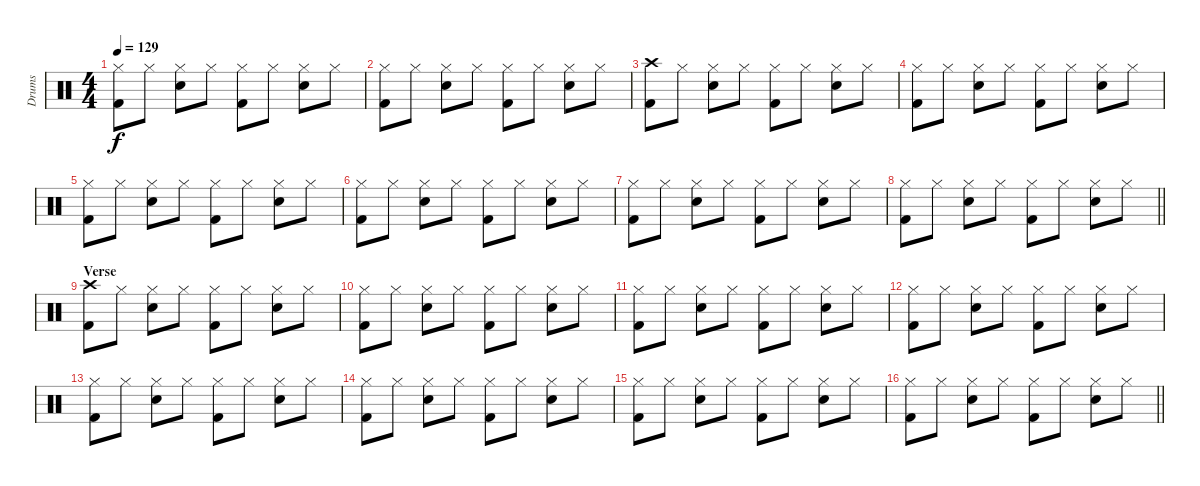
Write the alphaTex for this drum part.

\track ("Drums" "Drums") {instrument percussion}
\staff {score}
\articulation defaults
\ts (4 4)
\tempo 129
\clef neutral
\ks c
("Hi-Hat (closed)" "Kick (hit) 2").8{dy f} "Hi-Hat (closed)".8 ("Hi-Hat (closed)" "Snare (hit) 2").8 "Hi-Hat (closed)".8 ("Hi-Hat (closed)" "Kick (hit) 2").8 "Hi-Hat (closed)".8 ("Hi-Hat (closed)" "Snare (hit) 2").8 "Hi-Hat (closed)".8 |
("Hi-Hat (closed)" "Kick (hit) 2").8 "Hi-Hat (closed)".8 ("Hi-Hat (closed)" "Snare (hit) 2").8 "Hi-Hat (closed)".8 ("Hi-Hat (closed)" "Kick (hit) 2").8 "Hi-Hat (closed)".8 ("Hi-Hat (closed)" "Snare (hit) 2").8 "Hi-Hat (closed)".8 |
("Crash high (hit)" "Kick (hit) 2").8 "Hi-Hat (closed)".8 ("Hi-Hat (closed)" "Snare (hit) 2").8 "Hi-Hat (closed)".8 ("Hi-Hat (closed)" "Kick (hit) 2").8 "Hi-Hat (closed)".8 ("Hi-Hat (closed)" "Snare (hit) 2").8 "Hi-Hat (closed)".8 |
("Hi-Hat (closed)" "Kick (hit) 2").8 "Hi-Hat (closed)".8 ("Hi-Hat (closed)" "Snare (hit) 2").8 "Hi-Hat (closed)".8 ("Hi-Hat (closed)" "Kick (hit) 2").8 "Hi-Hat (closed)".8 ("Hi-Hat (closed)" "Snare (hit) 2").8 "Hi-Hat (closed)".8 |
("Hi-Hat (closed)" "Kick (hit) 2").8 "Hi-Hat (closed)".8 ("Hi-Hat (closed)" "Snare (hit) 2").8 "Hi-Hat (closed)".8 ("Hi-Hat (closed)" "Kick (hit) 2").8 "Hi-Hat (closed)".8 ("Hi-Hat (closed)" "Snare (hit) 2").8 "Hi-Hat (closed)".8 |
("Hi-Hat (closed)" "Kick (hit) 2").8 "Hi-Hat (closed)".8 ("Hi-Hat (closed)" "Snare (hit) 2").8 "Hi-Hat (closed)".8 ("Hi-Hat (closed)" "Kick (hit) 2").8 "Hi-Hat (closed)".8 ("Hi-Hat (closed)" "Snare (hit) 2").8 "Hi-Hat (closed)".8 |
("Hi-Hat (closed)" "Kick (hit) 2").8 "Hi-Hat (closed)".8 ("Hi-Hat (closed)" "Snare (hit) 2").8 "Hi-Hat (closed)".8 ("Hi-Hat (closed)" "Kick (hit) 2").8 "Hi-Hat (closed)".8 ("Hi-Hat (closed)" "Snare (hit) 2").8 "Hi-Hat (closed)".8 |
\barLineRight lightlight
("Hi-Hat (closed)" "Kick (hit) 2").8 "Hi-Hat (closed)".8 ("Hi-Hat (closed)" "Snare (hit) 2").8 "Hi-Hat (closed)".8 ("Hi-Hat (closed)" "Kick (hit) 2").8 "Hi-Hat (closed)".8 ("Hi-Hat (closed)" "Snare (hit) 2").8 "Hi-Hat (closed)".8 |
\section ("" "Verse")
("Crash high (hit)" "Kick (hit) 2").8 "Hi-Hat (closed)".8 ("Hi-Hat (closed)" "Snare (hit) 2").8 "Hi-Hat (closed)".8 ("Hi-Hat (closed)" "Kick (hit) 2").8 "Hi-Hat (closed)".8 ("Hi-Hat (closed)" "Snare (hit) 2").8 "Hi-Hat (closed)".8 |
("Hi-Hat (closed)" "Kick (hit) 2").8 "Hi-Hat (closed)".8 ("Hi-Hat (closed)" "Snare (hit) 2").8 "Hi-Hat (closed)".8 ("Hi-Hat (closed)" "Kick (hit) 2").8 "Hi-Hat (closed)".8 ("Hi-Hat (closed)" "Snare (hit) 2").8 "Hi-Hat (closed)".8 |
("Hi-Hat (closed)" "Kick (hit) 2").8 "Hi-Hat (closed)".8 ("Hi-Hat (closed)" "Snare (hit) 2").8 "Hi-Hat (closed)".8 ("Hi-Hat (closed)" "Kick (hit) 2").8 "Hi-Hat (closed)".8 ("Hi-Hat (closed)" "Snare (hit) 2").8 "Hi-Hat (closed)".8 |
("Hi-Hat (closed)" "Kick (hit) 2").8 "Hi-Hat (closed)".8 ("Hi-Hat (closed)" "Snare (hit) 2").8 "Hi-Hat (closed)".8 ("Hi-Hat (closed)" "Kick (hit) 2").8 "Hi-Hat (closed)".8 ("Hi-Hat (closed)" "Snare (hit) 2").8 "Hi-Hat (closed)".8 |
("Hi-Hat (closed)" "Kick (hit) 2").8 "Hi-Hat (closed)".8 ("Hi-Hat (closed)" "Snare (hit) 2").8 "Hi-Hat (closed)".8 ("Hi-Hat (closed)" "Kick (hit) 2").8 "Hi-Hat (closed)".8 ("Hi-Hat (closed)" "Snare (hit) 2").8 "Hi-Hat (closed)".8 |
("Hi-Hat (closed)" "Kick (hit) 2").8 "Hi-Hat (closed)".8 ("Hi-Hat (closed)" "Snare (hit) 2").8 "Hi-Hat (closed)".8 ("Hi-Hat (closed)" "Kick (hit) 2").8 "Hi-Hat (closed)".8 ("Hi-Hat (closed)" "Snare (hit) 2").8 "Hi-Hat (closed)".8 |
("Hi-Hat (closed)" "Kick (hit) 2").8 "Hi-Hat (closed)".8 ("Hi-Hat (closed)" "Snare (hit) 2").8 "Hi-Hat (closed)".8 ("Hi-Hat (closed)" "Kick (hit) 2").8 "Hi-Hat (closed)".8 ("Hi-Hat (closed)" "Snare (hit) 2").8 "Hi-Hat (closed)".8 |
\barLineRight lightlight
("Hi-Hat (closed)" "Kick (hit) 2").8 "Hi-Hat (closed)".8 ("Hi-Hat (closed)" "Snare (hit) 2").8 "Hi-Hat (closed)".8 ("Hi-Hat (closed)" "Kick (hit) 2").8 "Hi-Hat (closed)".8 ("Hi-Hat (closed)" "Snare (hit) 2").8 "Hi-Hat (closed)".8
